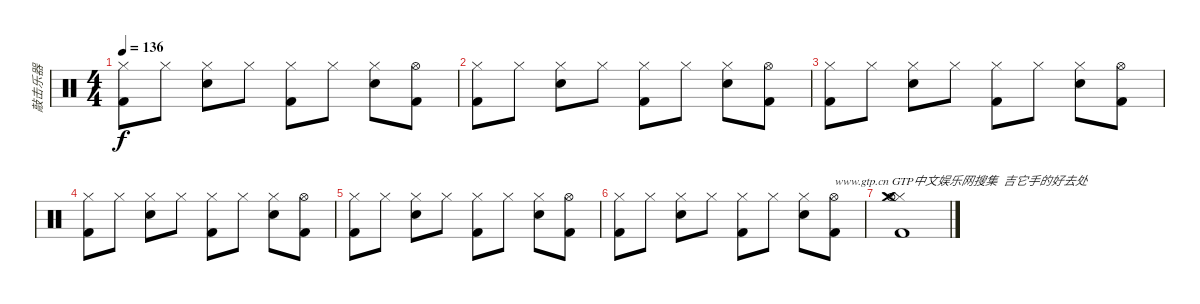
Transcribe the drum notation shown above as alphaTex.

\track ("敲击乐器" "敲击乐器") {instrument percussion}
\staff {score}
\articulation defaults
\ts (4 4)
\tempo 136
\clef neutral
\ks c
("Hi-Hat (closed)" "Kick (hit) 2").8{dy f} "Hi-Hat (closed)".8 ("Hi-Hat (closed)" "Electric Snare (hit)").8 "Hi-Hat (closed)".8 ("Hi-Hat (closed)" "Kick (hit) 2").8 "Hi-Hat (closed)".8 ("Hi-Hat (closed)" "Electric Snare (hit)").8 ("Hi-Hat (open)" "Kick (hit) 2").8 |
("Hi-Hat (closed)" "Kick (hit) 2").8 "Hi-Hat (closed)".8 ("Hi-Hat (closed)" "Electric Snare (hit)").8 "Hi-Hat (closed)".8 ("Hi-Hat (closed)" "Kick (hit) 2").8 "Hi-Hat (closed)".8 ("Hi-Hat (closed)" "Electric Snare (hit)").8 ("Hi-Hat (open)" "Kick (hit) 2").8 |
("Hi-Hat (closed)" "Kick (hit) 2").8 "Hi-Hat (closed)".8 ("Hi-Hat (closed)" "Electric Snare (hit)").8 "Hi-Hat (closed)".8 ("Hi-Hat (closed)" "Kick (hit) 2").8 "Hi-Hat (closed)".8 ("Hi-Hat (closed)" "Electric Snare (hit)").8 ("Hi-Hat (open)" "Kick (hit) 2").8 |
("Hi-Hat (closed)" "Kick (hit) 2").8 "Hi-Hat (closed)".8 ("Hi-Hat (closed)" "Electric Snare (hit)").8 "Hi-Hat (closed)".8 ("Hi-Hat (closed)" "Kick (hit) 2").8 "Hi-Hat (closed)".8 ("Hi-Hat (closed)" "Electric Snare (hit)").8 ("Hi-Hat (open)" "Kick (hit) 2").8 |
("Hi-Hat (closed)" "Kick (hit) 2").8 "Hi-Hat (closed)".8 ("Hi-Hat (closed)" "Electric Snare (hit)").8 "Hi-Hat (closed)".8 ("Hi-Hat (closed)" "Kick (hit) 2").8 "Hi-Hat (closed)".8 ("Hi-Hat (closed)" "Electric Snare (hit)").8 ("Hi-Hat (open)" "Kick (hit) 2").8 |
("Hi-Hat (closed)" "Kick (hit) 2").8 "Hi-Hat (closed)".8 ("Hi-Hat (closed)" "Electric Snare (hit)").8 "Hi-Hat (closed)".8 ("Hi-Hat (closed)" "Kick (hit) 2").8 "Hi-Hat (closed)".8 ("Hi-Hat (closed)" "Electric Snare (hit)").8 ("Hi-Hat (open)" "Kick (hit) 2").8{txt "www.gtp.cn GTP中文娱乐网搜集  吉它手的好去处"} |
("Hi-Hat (closed)" "Crash medium (hit)" "Hi-Hat (open)" "Kick (hit) 2").1
